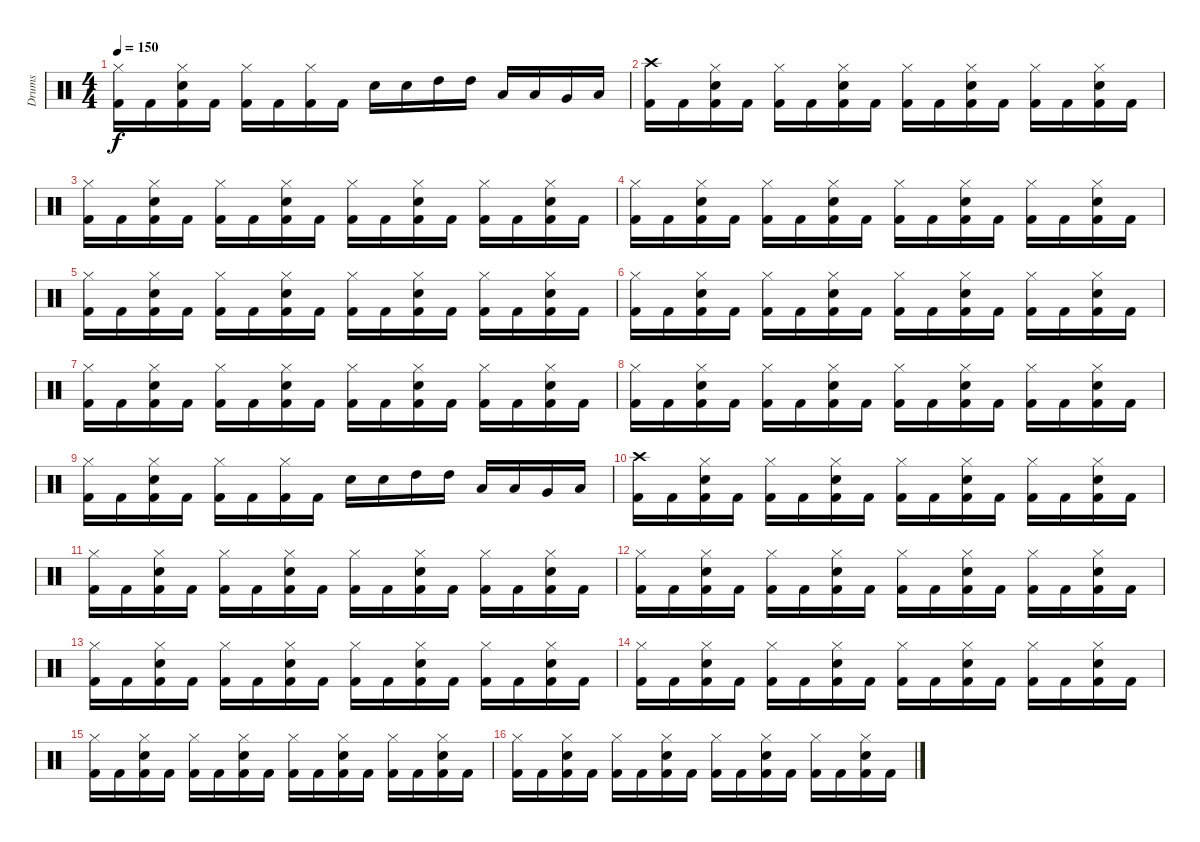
\track ("Drums" "Drums") {instrument percussion}
\staff {score}
\articulation defaults
\ts (4 4)
\tempo 150
\clef neutral
\ks c
("Hi-Hat (closed)" "Kick (hit) 2").16{dy f} "Kick (hit) 2".16 ("Hi-Hat (closed)" "Electric Snare (hit)" "Kick (hit) 2").16 "Kick (hit) 2".16 ("Hi-Hat (closed)" "Kick (hit) 2").16 "Kick (hit) 2".16 ("Hi-Hat (closed)" "Kick (hit) 2").16 "Kick (hit) 2".16 "Electric Snare (hit)".16 "Electric Snare (hit)".16 "High Tom (hit)".16 "High Tom (hit)".16 "Low Tom (hit)".16 "Low Tom (hit)".16 "Very Low Tom (hit)".16 "Low Floor Tom (hit)".16 |
("Crash high (hit)" "Kick (hit) 2").16 "Kick (hit) 2".16 ("Hi-Hat (closed)" "Electric Snare (hit)" "Kick (hit) 2").16 "Kick (hit) 2".16 ("Hi-Hat (closed)" "Kick (hit) 2").16 "Kick (hit) 2".16 ("Hi-Hat (closed)" "Electric Snare (hit)" "Kick (hit) 2").16 "Kick (hit) 2".16 ("Hi-Hat (closed)" "Kick (hit) 2").16 "Kick (hit) 2".16 ("Hi-Hat (closed)" "Electric Snare (hit)" "Kick (hit) 2").16 "Kick (hit) 2".16 ("Hi-Hat (closed)" "Kick (hit) 2").16 "Kick (hit) 2".16 ("Hi-Hat (closed)" "Electric Snare (hit)" "Kick (hit) 2").16 "Kick (hit) 2".16 |
("Hi-Hat (closed)" "Kick (hit) 2").16 "Kick (hit) 2".16 ("Hi-Hat (closed)" "Electric Snare (hit)" "Kick (hit) 2").16 "Kick (hit) 2".16 ("Hi-Hat (closed)" "Kick (hit) 2").16 "Kick (hit) 2".16 ("Hi-Hat (closed)" "Electric Snare (hit)" "Kick (hit) 2").16 "Kick (hit) 2".16 ("Hi-Hat (closed)" "Kick (hit) 2").16 "Kick (hit) 2".16 ("Hi-Hat (closed)" "Electric Snare (hit)" "Kick (hit) 2").16 "Kick (hit) 2".16 ("Hi-Hat (closed)" "Kick (hit) 2").16 "Kick (hit) 2".16 ("Hi-Hat (closed)" "Electric Snare (hit)" "Kick (hit) 2").16 "Kick (hit) 2".16 |
("Hi-Hat (closed)" "Kick (hit) 2").16 "Kick (hit) 2".16 ("Hi-Hat (closed)" "Electric Snare (hit)" "Kick (hit) 2").16 "Kick (hit) 2".16 ("Hi-Hat (closed)" "Kick (hit) 2").16 "Kick (hit) 2".16 ("Hi-Hat (closed)" "Electric Snare (hit)" "Kick (hit) 2").16 "Kick (hit) 2".16 ("Hi-Hat (closed)" "Kick (hit) 2").16 "Kick (hit) 2".16 ("Hi-Hat (closed)" "Electric Snare (hit)" "Kick (hit) 2").16 "Kick (hit) 2".16 ("Hi-Hat (closed)" "Kick (hit) 2").16 "Kick (hit) 2".16 ("Hi-Hat (closed)" "Electric Snare (hit)" "Kick (hit) 2").16 "Kick (hit) 2".16 |
("Hi-Hat (closed)" "Kick (hit) 2").16 "Kick (hit) 2".16 ("Hi-Hat (closed)" "Electric Snare (hit)" "Kick (hit) 2").16 "Kick (hit) 2".16 ("Hi-Hat (closed)" "Kick (hit) 2").16 "Kick (hit) 2".16 ("Hi-Hat (closed)" "Electric Snare (hit)" "Kick (hit) 2").16 "Kick (hit) 2".16 ("Hi-Hat (closed)" "Kick (hit) 2").16 "Kick (hit) 2".16 ("Hi-Hat (closed)" "Electric Snare (hit)" "Kick (hit) 2").16 "Kick (hit) 2".16 ("Hi-Hat (closed)" "Kick (hit) 2").16 "Kick (hit) 2".16 ("Hi-Hat (closed)" "Electric Snare (hit)" "Kick (hit) 2").16 "Kick (hit) 2".16 |
("Hi-Hat (closed)" "Kick (hit) 2").16 "Kick (hit) 2".16 ("Hi-Hat (closed)" "Electric Snare (hit)" "Kick (hit) 2").16 "Kick (hit) 2".16 ("Hi-Hat (closed)" "Kick (hit) 2").16 "Kick (hit) 2".16 ("Hi-Hat (closed)" "Electric Snare (hit)" "Kick (hit) 2").16 "Kick (hit) 2".16 ("Hi-Hat (closed)" "Kick (hit) 2").16 "Kick (hit) 2".16 ("Hi-Hat (closed)" "Electric Snare (hit)" "Kick (hit) 2").16 "Kick (hit) 2".16 ("Hi-Hat (closed)" "Kick (hit) 2").16 "Kick (hit) 2".16 ("Hi-Hat (closed)" "Electric Snare (hit)" "Kick (hit) 2").16 "Kick (hit) 2".16 |
("Hi-Hat (closed)" "Kick (hit) 2").16 "Kick (hit) 2".16 ("Hi-Hat (closed)" "Electric Snare (hit)" "Kick (hit) 2").16 "Kick (hit) 2".16 ("Hi-Hat (closed)" "Kick (hit) 2").16 "Kick (hit) 2".16 ("Hi-Hat (closed)" "Electric Snare (hit)" "Kick (hit) 2").16 "Kick (hit) 2".16 ("Hi-Hat (closed)" "Kick (hit) 2").16 "Kick (hit) 2".16 ("Hi-Hat (closed)" "Electric Snare (hit)" "Kick (hit) 2").16 "Kick (hit) 2".16 ("Hi-Hat (closed)" "Kick (hit) 2").16 "Kick (hit) 2".16 ("Hi-Hat (closed)" "Electric Snare (hit)" "Kick (hit) 2").16 "Kick (hit) 2".16 |
("Hi-Hat (closed)" "Kick (hit) 2").16 "Kick (hit) 2".16 ("Hi-Hat (closed)" "Electric Snare (hit)" "Kick (hit) 2").16 "Kick (hit) 2".16 ("Hi-Hat (closed)" "Kick (hit) 2").16 "Kick (hit) 2".16 ("Hi-Hat (closed)" "Electric Snare (hit)" "Kick (hit) 2").16 "Kick (hit) 2".16 ("Hi-Hat (closed)" "Kick (hit) 2").16 "Kick (hit) 2".16 ("Hi-Hat (closed)" "Electric Snare (hit)" "Kick (hit) 2").16 "Kick (hit) 2".16 ("Hi-Hat (closed)" "Kick (hit) 2").16 "Kick (hit) 2".16 ("Hi-Hat (closed)" "Electric Snare (hit)" "Kick (hit) 2").16 "Kick (hit) 2".16 |
("Hi-Hat (closed)" "Kick (hit) 2").16 "Kick (hit) 2".16 ("Hi-Hat (closed)" "Electric Snare (hit)" "Kick (hit) 2").16 "Kick (hit) 2".16 ("Hi-Hat (closed)" "Kick (hit) 2").16 "Kick (hit) 2".16 ("Hi-Hat (closed)" "Kick (hit) 2").16 "Kick (hit) 2".16 "Electric Snare (hit)".16 "Electric Snare (hit)".16 "High Tom (hit)".16 "High Tom (hit)".16 "Low Tom (hit)".16 "Low Tom (hit)".16 "Very Low Tom (hit)".16 "Low Floor Tom (hit)".16 |
("Crash high (hit)" "Kick (hit) 2").16 "Kick (hit) 2".16 ("Hi-Hat (closed)" "Electric Snare (hit)" "Kick (hit) 2").16 "Kick (hit) 2".16 ("Hi-Hat (closed)" "Kick (hit) 2").16 "Kick (hit) 2".16 ("Hi-Hat (closed)" "Electric Snare (hit)" "Kick (hit) 2").16 "Kick (hit) 2".16 ("Hi-Hat (closed)" "Kick (hit) 2").16 "Kick (hit) 2".16 ("Hi-Hat (closed)" "Electric Snare (hit)" "Kick (hit) 2").16 "Kick (hit) 2".16 ("Hi-Hat (closed)" "Kick (hit) 2").16 "Kick (hit) 2".16 ("Hi-Hat (closed)" "Electric Snare (hit)" "Kick (hit) 2").16 "Kick (hit) 2".16 |
("Hi-Hat (closed)" "Kick (hit) 2").16 "Kick (hit) 2".16 ("Hi-Hat (closed)" "Electric Snare (hit)" "Kick (hit) 2").16 "Kick (hit) 2".16 ("Hi-Hat (closed)" "Kick (hit) 2").16 "Kick (hit) 2".16 ("Hi-Hat (closed)" "Electric Snare (hit)" "Kick (hit) 2").16 "Kick (hit) 2".16 ("Hi-Hat (closed)" "Kick (hit) 2").16 "Kick (hit) 2".16 ("Hi-Hat (closed)" "Electric Snare (hit)" "Kick (hit) 2").16 "Kick (hit) 2".16 ("Hi-Hat (closed)" "Kick (hit) 2").16 "Kick (hit) 2".16 ("Hi-Hat (closed)" "Electric Snare (hit)" "Kick (hit) 2").16 "Kick (hit) 2".16 |
("Hi-Hat (closed)" "Kick (hit) 2").16 "Kick (hit) 2".16 ("Hi-Hat (closed)" "Electric Snare (hit)" "Kick (hit) 2").16 "Kick (hit) 2".16 ("Hi-Hat (closed)" "Kick (hit) 2").16 "Kick (hit) 2".16 ("Hi-Hat (closed)" "Electric Snare (hit)" "Kick (hit) 2").16 "Kick (hit) 2".16 ("Hi-Hat (closed)" "Kick (hit) 2").16 "Kick (hit) 2".16 ("Hi-Hat (closed)" "Electric Snare (hit)" "Kick (hit) 2").16 "Kick (hit) 2".16 ("Hi-Hat (closed)" "Kick (hit) 2").16 "Kick (hit) 2".16 ("Hi-Hat (closed)" "Electric Snare (hit)" "Kick (hit) 2").16 "Kick (hit) 2".16 |
("Hi-Hat (closed)" "Kick (hit) 2").16 "Kick (hit) 2".16 ("Hi-Hat (closed)" "Electric Snare (hit)" "Kick (hit) 2").16 "Kick (hit) 2".16 ("Hi-Hat (closed)" "Kick (hit) 2").16 "Kick (hit) 2".16 ("Hi-Hat (closed)" "Electric Snare (hit)" "Kick (hit) 2").16 "Kick (hit) 2".16 ("Hi-Hat (closed)" "Kick (hit) 2").16 "Kick (hit) 2".16 ("Hi-Hat (closed)" "Electric Snare (hit)" "Kick (hit) 2").16 "Kick (hit) 2".16 ("Hi-Hat (closed)" "Kick (hit) 2").16 "Kick (hit) 2".16 ("Hi-Hat (closed)" "Electric Snare (hit)" "Kick (hit) 2").16 "Kick (hit) 2".16 |
("Hi-Hat (closed)" "Kick (hit) 2").16 "Kick (hit) 2".16 ("Hi-Hat (closed)" "Electric Snare (hit)" "Kick (hit) 2").16 "Kick (hit) 2".16 ("Hi-Hat (closed)" "Kick (hit) 2").16 "Kick (hit) 2".16 ("Hi-Hat (closed)" "Electric Snare (hit)" "Kick (hit) 2").16 "Kick (hit) 2".16 ("Hi-Hat (closed)" "Kick (hit) 2").16 "Kick (hit) 2".16 ("Hi-Hat (closed)" "Electric Snare (hit)" "Kick (hit) 2").16 "Kick (hit) 2".16 ("Hi-Hat (closed)" "Kick (hit) 2").16 "Kick (hit) 2".16 ("Hi-Hat (closed)" "Electric Snare (hit)" "Kick (hit) 2").16 "Kick (hit) 2".16 |
("Hi-Hat (closed)" "Kick (hit) 2").16 "Kick (hit) 2".16 ("Hi-Hat (closed)" "Electric Snare (hit)" "Kick (hit) 2").16 "Kick (hit) 2".16 ("Hi-Hat (closed)" "Kick (hit) 2").16 "Kick (hit) 2".16 ("Hi-Hat (closed)" "Electric Snare (hit)" "Kick (hit) 2").16 "Kick (hit) 2".16 ("Hi-Hat (closed)" "Kick (hit) 2").16 "Kick (hit) 2".16 ("Hi-Hat (closed)" "Electric Snare (hit)" "Kick (hit) 2").16 "Kick (hit) 2".16 ("Hi-Hat (closed)" "Kick (hit) 2").16 "Kick (hit) 2".16 ("Hi-Hat (closed)" "Electric Snare (hit)" "Kick (hit) 2").16 "Kick (hit) 2".16 |
("Hi-Hat (closed)" "Kick (hit) 2").16 "Kick (hit) 2".16 ("Hi-Hat (closed)" "Electric Snare (hit)" "Kick (hit) 2").16 "Kick (hit) 2".16 ("Hi-Hat (closed)" "Kick (hit) 2").16 "Kick (hit) 2".16 ("Hi-Hat (closed)" "Electric Snare (hit)" "Kick (hit) 2").16 "Kick (hit) 2".16 ("Hi-Hat (closed)" "Kick (hit) 2").16 "Kick (hit) 2".16 ("Hi-Hat (closed)" "Electric Snare (hit)" "Kick (hit) 2").16 "Kick (hit) 2".16 ("Hi-Hat (closed)" "Kick (hit) 2").16 "Kick (hit) 2".16 ("Hi-Hat (closed)" "Electric Snare (hit)" "Kick (hit) 2").16 "Kick (hit) 2".16
